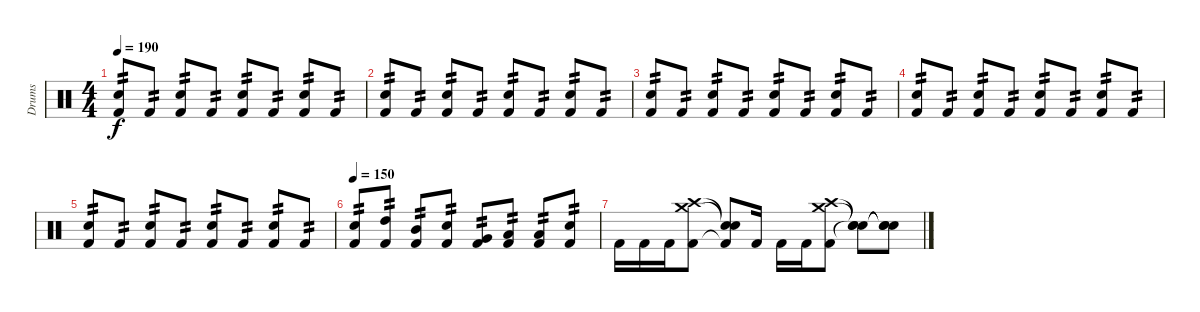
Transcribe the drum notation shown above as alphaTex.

\track ("Drums" "Drums") {instrument percussion}
\staff {score}
\articulation defaults
\ts (4 4)
\tempo 190
\clef neutral
\ks c
("Snare (hit) 2" "Kick (hit) 2").8{tp 2 dy f} "Kick (hit) 2".8{tp 2} ("Snare (hit) 2" "Kick (hit) 2").8{tp 2} "Kick (hit) 2".8{tp 2} ("Snare (hit) 2" "Kick (hit) 2").8{tp 2} "Kick (hit) 2".8{tp 2} ("Snare (hit) 2" "Kick (hit) 2").8{tp 2} "Kick (hit) 2".8{tp 2} |
("Snare (hit) 2" "Kick (hit) 2").8{tp 2} "Kick (hit) 2".8{tp 2} ("Snare (hit) 2" "Kick (hit) 2").8{tp 2} "Kick (hit) 2".8{tp 2} ("Snare (hit) 2" "Kick (hit) 2").8{tp 2} "Kick (hit) 2".8{tp 2} ("Snare (hit) 2" "Kick (hit) 2").8{tp 2} "Kick (hit) 2".8{tp 2} |
("Snare (hit) 2" "Kick (hit) 2").8{tp 2} "Kick (hit) 2".8{tp 2} ("Snare (hit) 2" "Kick (hit) 2").8{tp 2} "Kick (hit) 2".8{tp 2} ("Snare (hit) 2" "Kick (hit) 2").8{tp 2} "Kick (hit) 2".8{tp 2} ("Snare (hit) 2" "Kick (hit) 2").8{tp 2} "Kick (hit) 2".8{tp 2} |
("Snare (hit) 2" "Kick (hit) 2").8{tp 2} "Kick (hit) 2".8{tp 2} ("Snare (hit) 2" "Kick (hit) 2").8{tp 2} "Kick (hit) 2".8{tp 2} ("Snare (hit) 2" "Kick (hit) 2").8{tp 2} "Kick (hit) 2".8{tp 2} ("Snare (hit) 2" "Kick (hit) 2").8{tp 2} "Kick (hit) 2".8{tp 2} |
("Snare (hit) 2" "Kick (hit) 2").8{tp 2} "Kick (hit) 2".8{tp 2} ("Snare (hit) 2" "Kick (hit) 2").8{tp 2} "Kick (hit) 2".8{tp 2} ("Snare (hit) 2" "Kick (hit) 2").8{tp 2} "Kick (hit) 2".8{tp 2} ("Snare (hit) 2" "Kick (hit) 2").8{tp 2} "Kick (hit) 2".8{tp 2} |
\tempo 150
("Snare (hit) 2" "Kick (hit) 2").8{tp 2} ("High Tom (hit)" "Kick (hit) 2").8{tp 2} ("Mid Tom (hit)" "Kick (hit) 2").8{tp 2} ("Snare (hit) 2" "Kick (hit) 2").8{tp 2} ("Very Low Tom (hit)" "Kick (hit) 2").8{tp 2} ("Low Floor Tom (hit)" "Kick (hit) 2").8{tp 2} ("Low Floor Tom (hit)" "Kick (hit) 2").8{tp 2} ("Snare (hit) 2" "Kick (hit) 2").8{tp 2} |
"Kick (hit) 2".16 "Kick (hit) 2".16 "Kick (hit) 2".16 ("Crash medium (hit)" "Crash high (hit)" "Kick (hit) 2").8 ("Snare (hit)"{t} "Snare (hit)"{t} "Kick (hit) 2"{t}).8 "Kick (hit) 2".16 "Kick (hit) 2".16 "Kick (hit) 2".16 ("Crash medium (hit)" "Crash high (hit)" "Kick (hit) 2").8 ("Snare (hit)"{t} "Snare (hit)"{t} "Snare (hit)"{t}).8 ("Snare (hit)"{t} "Snare (hit)"{t} "Snare (hit)"{t}).8
